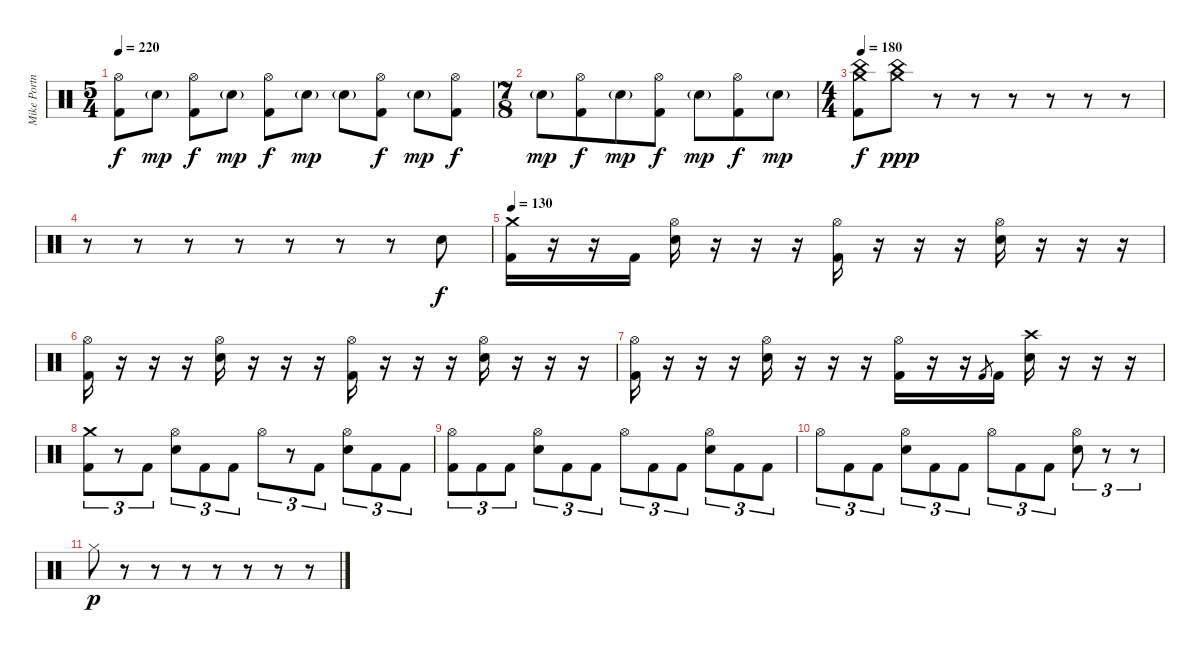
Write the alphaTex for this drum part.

\track ("Mike Portnoy" "Mike Portn") {instrument percussion}
\staff {score}
\articulation defaults
\ts (5 4)
\tempo 220
\clef neutral
\ks c
("Hi-Hat (open)" "Kick (hit) 2").8{dy f} "Electric Snare (hit)"{g}.8{dy mp} ("Hi-Hat (open)" "Kick (hit) 2").8{dy f} "Electric Snare (hit)"{g}.8{dy mp} ("Hi-Hat (open)" "Kick (hit) 2").8{dy f} "Electric Snare (hit)"{g}.8{dy mp} "Electric Snare (hit)"{g}.8 ("Hi-Hat (open)" "Kick (hit) 2").8{dy f} "Electric Snare (hit)"{g}.8{dy mp} ("Hi-Hat (open)" "Kick (hit) 2").8{dy f} |
\ts (7 8)
"Electric Snare (hit)"{g}.8{dy mp} ("Hi-Hat (open)" "Kick (hit) 2").8{dy f} "Electric Snare (hit)"{g}.8{dy mp} ("Hi-Hat (open)" "Kick (hit) 2").8{dy f} "Electric Snare (hit)"{g}.8{dy mp} ("Hi-Hat (open)" "Kick (hit) 2").8{dy f} "Electric Snare (hit)"{g}.8{dy mp} |
\ts (4 4)
\tempo 180
("Crash medium (hit)" "China (hit)" "Kick (hit) 2").8{dy f} ("Crash medium (hit)" "China (hit)").8{dy ppp} r.8 r.8 r.8 r.8 r.8 r.8 |
r.8 r.8 r.8 r.8 r.8 r.8 r.8 "Electric Snare (hit)".8{dy f} |
\tempo 130
("Crash medium (hit)" "Kick (hit) 2").16 r.16 r.16 "Kick (hit) 2".16 ("Hi-Hat (open)" "Electric Snare (hit)").16 r.16 r.16 r.16 ("Hi-Hat (open)" "Kick (hit) 2").16 r.16 r.16 r.16 ("Hi-Hat (open)" "Electric Snare (hit)").16 r.16 r.16 r.16 |
("Hi-Hat (open)" "Kick (hit) 2").16 r.16 r.16 r.16 ("Hi-Hat (open)" "Electric Snare (hit)").16 r.16 r.16 r.16 ("Hi-Hat (open)" "Kick (hit) 2").16 r.16 r.16 r.16 ("Hi-Hat (open)" "Electric Snare (hit)").16 r.16 r.16 r.16 |
("Hi-Hat (open)" "Kick (hit) 2").16 r.16 r.16 r.16 ("Hi-Hat (open)" "Electric Snare (hit)").16 r.16 r.16 r.16 ("Hi-Hat (open)" "Kick (hit) 2").16 r.16 r.16 "Kick (hit) 2".8{gr} "Kick (hit) 2".16 ("Crash high (hit)" "Electric Snare (hit)").16 r.16 r.16 r.16 |
("Crash medium (hit)" "Kick (hit) 2").8{tu (3 2)} r.8{tu (3 2)} "Kick (hit) 2".8{tu (3 2)} ("Hi-Hat (open)" "Electric Snare (hit)").8{tu (3 2)} "Kick (hit) 2".8{tu (3 2)} "Kick (hit) 2".8{tu (3 2)} "Hi-Hat (open)".8{tu (3 2)} r.8{tu (3 2)} "Kick (hit) 2".8{tu (3 2)} ("Hi-Hat (open)" "Electric Snare (hit)").8{tu (3 2)} "Kick (hit) 2".8{tu (3 2)} "Kick (hit) 2".8{tu (3 2)} |
("Hi-Hat (open)" "Kick (hit) 2").8{tu (3 2)} "Kick (hit) 2".8{tu (3 2)} "Kick (hit) 2".8{tu (3 2)} ("Hi-Hat (open)" "Electric Snare (hit)").8{tu (3 2)} "Kick (hit) 2".8{tu (3 2)} "Kick (hit) 2".8{tu (3 2)} "Hi-Hat (open)".8{tu (3 2)} "Kick (hit) 2".8{tu (3 2)} "Kick (hit) 2".8{tu (3 2)} ("Hi-Hat (open)" "Electric Snare (hit)").8{tu (3 2)} "Kick (hit) 2".8{tu (3 2)} "Kick (hit) 2".8{tu (3 2)} |
"Hi-Hat (open)".8{tu (3 2)} "Kick (hit) 2".8{tu (3 2)} "Kick (hit) 2".8{tu (3 2)} ("Hi-Hat (open)" "Electric Snare (hit)").8{tu (3 2)} "Kick (hit) 2".8{tu (3 2)} "Kick (hit) 2".8{tu (3 2)} "Hi-Hat (open)".8{tu (3 2)} "Kick (hit) 2".8{tu (3 2)} "Kick (hit) 2".8{tu (3 2)} ("Hi-Hat (open)" "Electric Snare (hit)").8{tu (3 2)} r.8{tu (3 2)} r.8{tu (3 2)} |
"Hi-Hat (closed)".8{dy p} r.8 r.8 r.8 r.8 r.8 r.8 r.8
